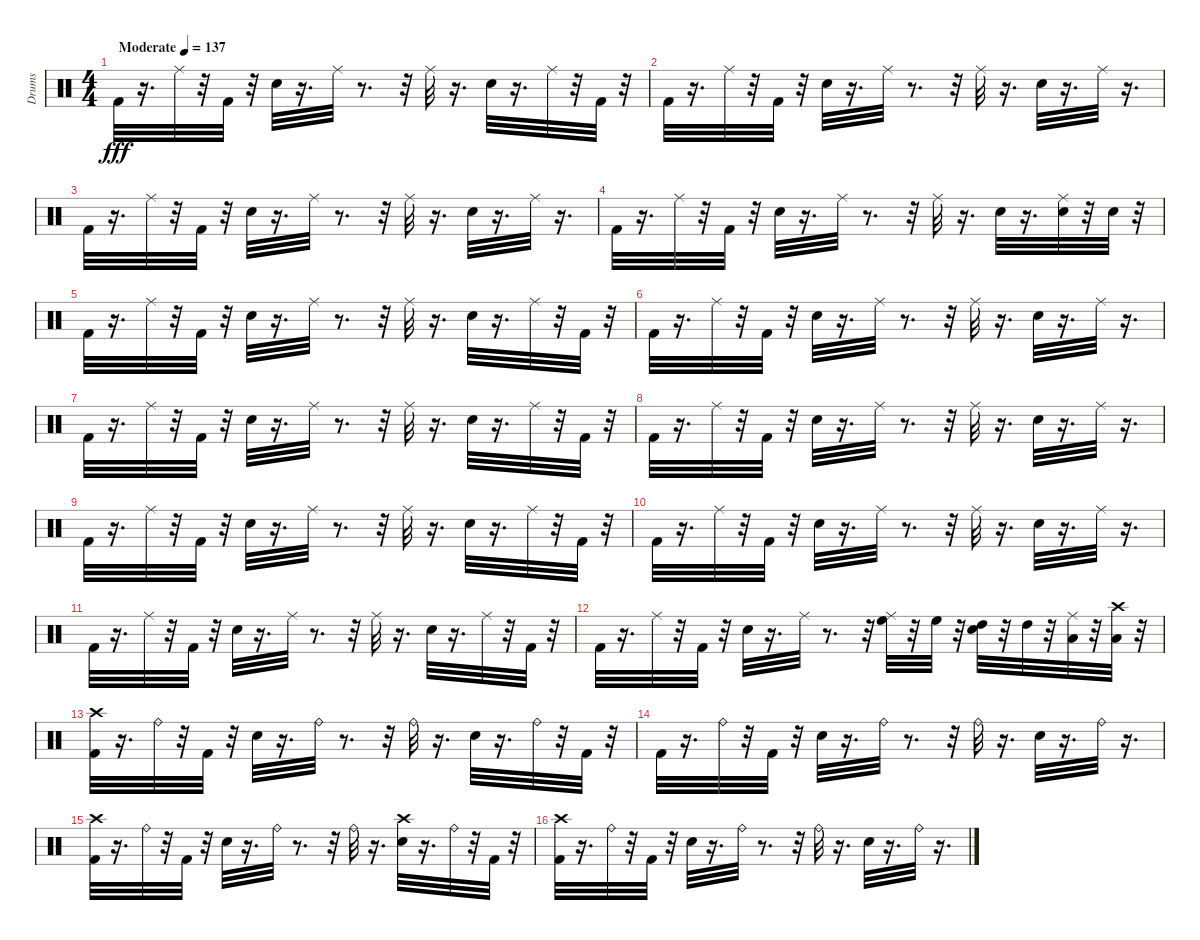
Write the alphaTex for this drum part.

\track ("Drums" "Drums") {instrument percussion}
\staff {score}
\articulation defaults
\ts (4 4)
\tempo (137 "Moderate")
\clef neutral
\ks c "Kick (hit) 2".32{dy fff}
r.16{d} "Ride (middle)".32 r.32 "Kick (hit) 2".32 r.32 "Snare (hit) 2".32 r.16{d} "Ride (middle)".32 r.8{d} r.32 "Ride (middle)".32 r.16{d} "Snare (hit) 2".32 r.16{d} "Ride (middle)".32 r.32 "Kick (hit) 2".32 r.32 |
"Kick (hit) 2".32 r.16{d} "Ride (middle)".32 r.32 "Kick (hit) 2".32 r.32 "Snare (hit) 2".32 r.16{d} "Ride (middle)".32 r.8{d} r.32 "Ride (middle)".32 r.16{d} "Snare (hit) 2".32 r.16{d} "Ride (middle)".32 r.16{d} |
"Kick (hit) 2".32 r.16{d} "Ride (middle)".32 r.32 "Kick (hit) 2".32 r.32 "Snare (hit) 2".32 r.16{d} "Ride (middle)".32 r.8{d} r.32 "Ride (middle)".32 r.16{d} "Snare (hit) 2".32 r.16{d} "Ride (middle)".32 r.16{d} |
"Kick (hit) 2".32 r.16{d} "Ride (middle)".32 r.32 "Kick (hit) 2".32 r.32 "Snare (hit) 2".32 r.16{d} "Ride (middle)".32 r.8{d} r.32 "Ride (middle)".32 r.16{d} "Snare (hit) 2".32 r.16{d} ("Snare (hit) 2" "Ride (middle)").32 r.32 "Snare (hit) 2".32 r.32 |
"Kick (hit) 2".32 r.16{d} "Ride (middle)".32 r.32 "Kick (hit) 2".32 r.32 "Snare (hit) 2".32 r.16{d} "Ride (middle)".32 r.8{d} r.32 "Ride (middle)".32 r.16{d} "Snare (hit) 2".32 r.16{d} "Ride (middle)".32 r.32 "Kick (hit) 2".32 r.32 |
"Kick (hit) 2".32 r.16{d} "Ride (middle)".32 r.32 "Kick (hit) 2".32 r.32 "Snare (hit) 2".32 r.16{d} "Ride (middle)".32 r.8{d} r.32 "Ride (middle)".32 r.16{d} "Snare (hit) 2".32 r.16{d} "Ride (middle)".32 r.16{d} |
"Kick (hit) 2".32 r.16{d} "Ride (middle)".32 r.32 "Kick (hit) 2".32 r.32 "Snare (hit) 2".32 r.16{d} "Ride (middle)".32 r.8{d} r.32 "Ride (middle)".32 r.16{d} "Snare (hit) 2".32 r.16{d} "Ride (middle)".32 r.32 "Kick (hit) 2".32 r.32 |
"Kick (hit) 2".32 r.16{d} "Ride (middle)".32 r.32 "Kick (hit) 2".32 r.32 "Snare (hit) 2".32 r.16{d} "Ride (middle)".32 r.8{d} r.32 "Ride (middle)".32 r.16{d} "Snare (hit) 2".32 r.16{d} "Ride (middle)".32 r.16{d} |
"Kick (hit) 2".32 r.16{d} "Ride (middle)".32 r.32 "Kick (hit) 2".32 r.32 "Snare (hit) 2".32 r.16{d} "Ride (middle)".32 r.8{d} r.32 "Ride (middle)".32 r.16{d} "Snare (hit) 2".32 r.16{d} "Ride (middle)".32 r.32 "Kick (hit) 2".32 r.32 |
"Kick (hit) 2".32 r.16{d} "Ride (middle)".32 r.32 "Kick (hit) 2".32 r.32 "Snare (hit) 2".32 r.16{d} "Ride (middle)".32 r.8{d} r.32 "Ride (middle)".32 r.16{d} "Snare (hit) 2".32 r.16{d} "Ride (middle)".32 r.16{d} |
"Kick (hit) 2".32 r.16{d} "Ride (middle)".32 r.32 "Kick (hit) 2".32 r.32 "Snare (hit) 2".32 r.16{d} "Ride (middle)".32 r.8{d} r.32 "Ride (middle)".32 r.16{d} "Snare (hit) 2".32 r.16{d} "Ride (middle)".32 r.32 "Kick (hit) 2".32 r.32 |
"Kick (hit) 2".32 r.16{d} "Ride (middle)".32 r.32 "Kick (hit) 2".32 r.32 "Snare (hit) 2".32 r.16{d} "Ride (middle)".32 r.8{d} r.32 ("Ride (middle)" "High Floor Tom (hit)").32 r.32 "High Floor Tom (hit)".32 r.32 ("High Tom (hit)" "Snare (hit) 2").32 r.32 "High Tom (hit)".32 r.32 ("Low Tom (hit)" "Ride (middle)").32 r.32 ("Crash high (hit)" "Low Tom (hit)").32 r.32 |
("Kick (hit) 2" "Crash high (hit)").32 r.16{d} "Ride (bell)".32 r.32 "Kick (hit) 2".32 r.32 "Snare (hit) 2".32 r.16{d} "Ride (bell)".32 r.8{d} r.32 "Ride (bell)".32 r.16{d} "Snare (hit) 2".32 r.16{d} "Ride (bell)".32 r.32 "Kick (hit) 2".32 r.32 |
"Kick (hit) 2".32 r.16{d} "Ride (bell)".32 r.32 "Kick (hit) 2".32 r.32 "Snare (hit) 2".32 r.16{d} "Ride (bell)".32 r.8{d} r.32 "Ride (bell)".32 r.16{d} "Snare (hit) 2".32 r.16{d} "Ride (bell)".32 r.16{d} |
("Crash high (hit)" "Kick (hit) 2").32 r.16{d} "Ride (bell)".32 r.32 "Kick (hit) 2".32 r.32 "Snare (hit) 2".32 r.16{d} "Ride (bell)".32 r.8{d} r.32 "Ride (bell)".32 r.16{d} ("Snare (hit) 2" "Crash high (hit)").32 r.16{d} "Ride (bell)".32 r.32 "Kick (hit) 2".32 r.32 |
("Crash high (hit)" "Kick (hit) 2").32 r.16{d} "Ride (bell)".32 r.32 "Kick (hit) 2".32 r.32 "Snare (hit) 2".32 r.16{d} "Ride (bell)".32 r.8{d} r.32 "Ride (bell)".32 r.16{d} "Snare (hit) 2".32 r.16{d} "Ride (bell)".32 r.16{d}
